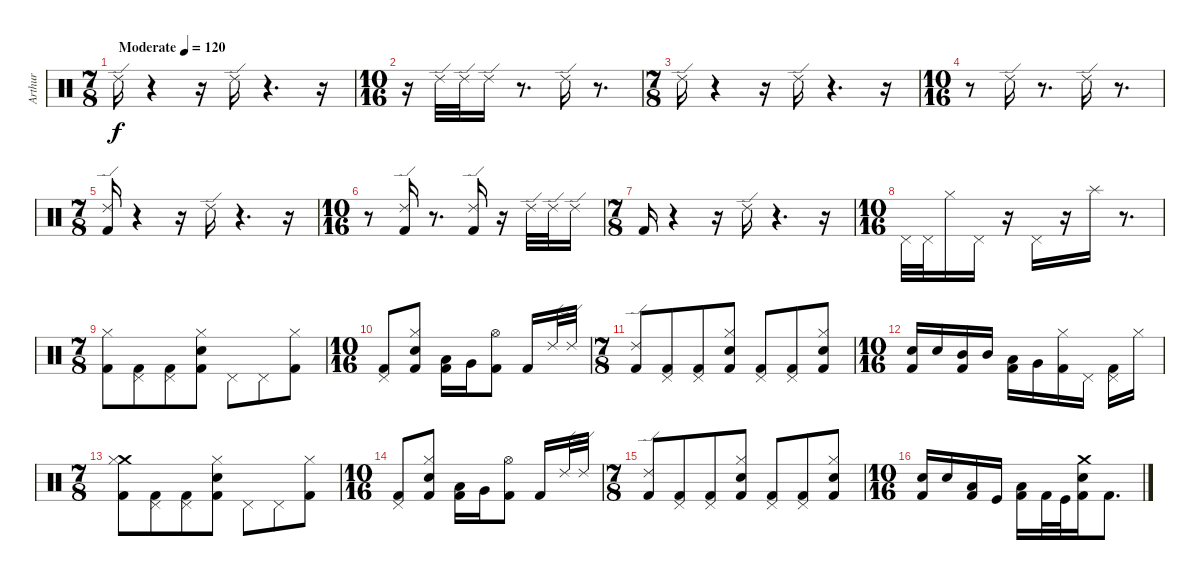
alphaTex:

\track ("Arthur" "Arthur") {instrument percussion}
\staff {score}
\articulation defaults
\ts (7 8)
\tempo (120 "Moderate")
\clef neutral
\ks c "Ride (edge) 2".16{dy f}
r.4 r.16 "Ride (edge) 2".16 r.4{d} r.16 |
\ts (10 16)
r.16 "Ride (edge) 2".32 "Ride (edge) 2".32 "Ride (edge) 2".16 r.8{d} "Ride (edge) 2".16 r.8{d} |
\ts (7 8)
"Ride (edge) 2".16 r.4 r.16 "Ride (edge) 2".16 r.4{d} r.16 |
\ts (10 16)
r.8 "Ride (edge) 2".16 r.8{d} "Ride (edge) 2".16 r.8{d} |
\ts (7 8)
("Ride (edge) 2" "Kick (hit) 2").16 r.4 r.16 "Ride (edge) 2".16 r.4{d} r.16 |
\ts (10 16)
r.8 ("Ride (edge) 2" "Kick (hit) 2").16 r.8{d} ("Ride (edge) 2" "Kick (hit) 2").16 r.16 "Ride (edge) 2".32 "Ride (edge) 2".32 "Ride (edge) 2".16 |
\ts (7 8)
"Kick (hit) 2".16 r.4 r.16 "Ride (edge) 2".16 r.4{d} r.16 |
\ts (10 16)
"Pedal Hi-Hat (hit)".32 "Pedal Hi-Hat (hit)".32 "Hi-Hat (closed)".16 "Pedal Hi-Hat (hit)".16 r.16 "Pedal Hi-Hat (hit)".16 r.16 "Splash (hit)".16 r.8{d} |
\ts (7 8)
("Hi-Hat (closed)" "Kick (hit) 2").8 ("Pedal Hi-Hat (hit)" "Kick (hit) 2").8 ("Pedal Hi-Hat (hit)" "Kick (hit) 2").8 ("Hi-Hat (closed)" "Electric Snare (hit)" "Kick (hit) 2").8 "Pedal Hi-Hat (hit)".8 "Pedal Hi-Hat (hit)".8 ("Hi-Hat (closed)" "Kick (hit) 2").8 |
\ts (10 16)
("Pedal Hi-Hat (hit)" "Kick (hit) 2").8 ("Hi-Hat (closed)" "Electric Snare (hit)" "Kick (hit) 2").8 ("Low Tom (hit)" "Kick (hit) 2").16 "Very Low Tom (hit)".16 ("Hi-Hat (open)" "Kick (hit) 2").8 "Kick (hit) 2".16 "Ride (edge) 2".32 "Ride (edge) 2".32 |
\ts (7 8)
("Ride (edge) 2" "Kick (hit) 2").8 ("Pedal Hi-Hat (hit)" "Kick (hit) 2").8 ("Pedal Hi-Hat (hit)" "Kick (hit) 2").8 ("Hi-Hat (closed)" "Electric Snare (hit)" "Kick (hit) 2").8 ("Pedal Hi-Hat (hit)" "Kick (hit) 2").8 ("Pedal Hi-Hat (hit)" "Kick (hit) 2").8 ("Hi-Hat (closed)" "Electric Snare (hit)" "Kick (hit) 2").8 |
\ts (10 16)
("Electric Snare (hit)" "Kick (hit) 2").16 "Electric Snare (hit)".16 ("Mid Tom (hit)" "Kick (hit) 2").16 "Mid Tom (hit)".16 ("Low Tom (hit)" "Kick (hit) 2").16 "Very Low Tom (hit)".16 ("Hi-Hat (closed)" "Kick (hit) 2").16 "Pedal Hi-Hat (hit)".16 ("Pedal Hi-Hat (hit)" "Kick (hit) 2").16 "Hi-Hat (closed)".16 |
\ts (7 8)
("Crash medium (hit)" "Hi-Hat (closed)" "Kick (hit) 2").8 ("Pedal Hi-Hat (hit)" "Kick (hit) 2").8 ("Pedal Hi-Hat (hit)" "Kick (hit) 2").8 ("Hi-Hat (closed)" "Electric Snare (hit)" "Kick (hit) 2").8 "Pedal Hi-Hat (hit)".8 "Pedal Hi-Hat (hit)".8 ("Hi-Hat (closed)" "Kick (hit) 2").8 |
\ts (10 16)
("Pedal Hi-Hat (hit)" "Kick (hit) 2").8 ("Hi-Hat (closed)" "Electric Snare (hit)" "Kick (hit) 2").8 ("Low Tom (hit)" "Kick (hit) 2").16 "Very Low Tom (hit)".16 ("Hi-Hat (open)" "Kick (hit) 2").8 "Kick (hit) 2".16 "Ride (edge) 2".32 "Ride (edge) 2".32 |
\ts (7 8)
("Ride (edge) 2" "Kick (hit) 2").8 ("Pedal Hi-Hat (hit)" "Kick (hit) 2").8 ("Pedal Hi-Hat (hit)" "Kick (hit) 2").8 ("Hi-Hat (closed)" "Electric Snare (hit)" "Kick (hit) 2").8 ("Pedal Hi-Hat (hit)" "Kick (hit) 2").8 ("Pedal Hi-Hat (hit)" "Kick (hit) 2").8 ("Hi-Hat (closed)" "Electric Snare (hit)" "Kick (hit) 2").8 |
\ts (10 16)
("Electric Snare (hit)" "Kick (hit) 2").16 "Electric Snare (hit)".16 ("Low Tom (hit)" "Kick (hit) 2").16 "Kick (hit)".16 ("Low Tom (hit)" "Kick (hit) 2").16 "Kick (hit) 2".32 "Kick (hit)".32 ("Crash medium (hit)" "Electric Snare (hit)" "Kick (hit) 2").16 "Kick (hit) 2".8{d}
